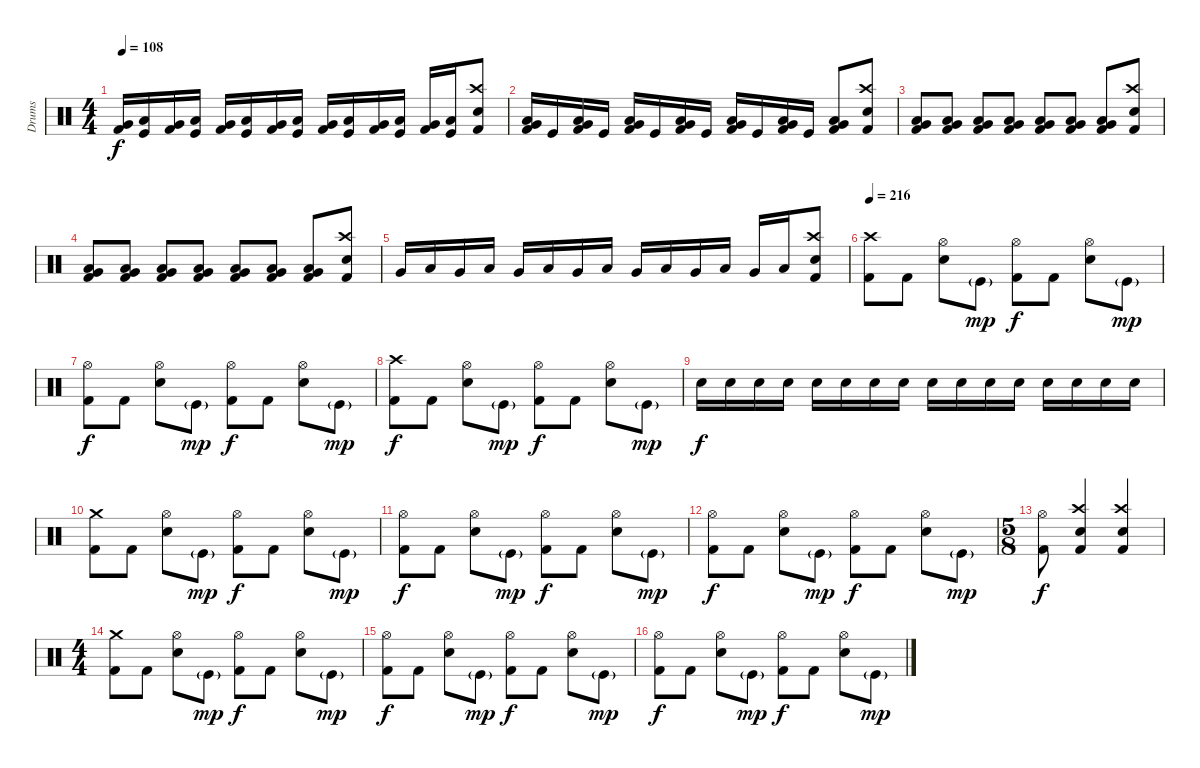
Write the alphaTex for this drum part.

\track ("Drums" "Drums") {instrument percussion}
\staff {score}
\articulation defaults
\ts (4 4)
\tempo 108
\clef neutral
\ks c
("Very Low Tom (hit)" "Kick (hit) 2").16{dy f} ("Low Floor Tom (hit)" "Kick (hit)").16 ("Very Low Tom (hit)" "Kick (hit) 2").16 ("Low Floor Tom (hit)" "Kick (hit)").16 ("Very Low Tom (hit)" "Kick (hit) 2").16 ("Low Floor Tom (hit)" "Kick (hit)").16 ("Very Low Tom (hit)" "Kick (hit) 2").16 ("Low Floor Tom (hit)" "Kick (hit)").16 ("Very Low Tom (hit)" "Kick (hit) 2").16 ("Low Floor Tom (hit)" "Kick (hit)").16 ("Very Low Tom (hit)" "Kick (hit) 2").16 ("Low Floor Tom (hit)" "Kick (hit)").16 ("Very Low Tom (hit)" "Kick (hit) 2").16 ("Low Floor Tom (hit)" "Kick (hit)").16 ("Crash high (hit)" "Snare (hit) 2" "Kick (hit) 2").8 |
("Low Floor Tom (hit)" "Very Low Tom (hit)" "Kick (hit) 2").16 "Kick (hit)".16 ("Low Floor Tom (hit)" "Very Low Tom (hit)" "Kick (hit) 2").16 "Kick (hit)".16 ("Low Floor Tom (hit)" "Very Low Tom (hit)" "Kick (hit) 2").16 "Kick (hit)".16 ("Low Floor Tom (hit)" "Very Low Tom (hit)" "Kick (hit) 2").16 "Kick (hit)".16 ("Low Floor Tom (hit)" "Very Low Tom (hit)" "Kick (hit) 2").16 "Kick (hit)".16 ("Low Floor Tom (hit)" "Very Low Tom (hit)" "Kick (hit) 2").16 "Kick (hit)".16 ("Low Floor Tom (hit)" "Very Low Tom (hit)" "Kick (hit) 2").8 ("Crash high (hit)" "Snare (hit) 2" "Kick (hit) 2").8 |
("Low Floor Tom (hit)" "Very Low Tom (hit)" "Kick (hit) 2").8 ("Low Floor Tom (hit)" "Very Low Tom (hit)" "Kick (hit) 2").8 ("Low Floor Tom (hit)" "Very Low Tom (hit)" "Kick (hit) 2").8 ("Low Floor Tom (hit)" "Very Low Tom (hit)" "Kick (hit) 2").8 ("Low Floor Tom (hit)" "Very Low Tom (hit)" "Kick (hit) 2").8 ("Low Floor Tom (hit)" "Very Low Tom (hit)" "Kick (hit) 2").8 ("Low Floor Tom (hit)" "Very Low Tom (hit)" "Kick (hit) 2").8 ("Crash high (hit)" "Snare (hit) 2" "Kick (hit) 2").8 |
("Low Floor Tom (hit)" "Very Low Tom (hit)" "Kick (hit) 2").8 ("Low Floor Tom (hit)" "Very Low Tom (hit)" "Kick (hit) 2").8 ("Low Floor Tom (hit)" "Very Low Tom (hit)" "Kick (hit) 2").8 ("Low Floor Tom (hit)" "Very Low Tom (hit)" "Kick (hit) 2").8 ("Low Floor Tom (hit)" "Very Low Tom (hit)" "Kick (hit) 2").8 ("Low Floor Tom (hit)" "Very Low Tom (hit)" "Kick (hit) 2").8 ("Low Floor Tom (hit)" "Very Low Tom (hit)" "Kick (hit) 2").8 ("Crash high (hit)" "Snare (hit) 2" "Kick (hit) 2").8 |
"Very Low Tom (hit)".16 "Low Floor Tom (hit)".16 "Very Low Tom (hit)".16 "Low Floor Tom (hit)".16 "Very Low Tom (hit)".16 "Low Floor Tom (hit)".16 "Very Low Tom (hit)".16 "Low Floor Tom (hit)".16 "Very Low Tom (hit)".16 "Low Floor Tom (hit)".16 "Very Low Tom (hit)".16 "Low Floor Tom (hit)".16 "Very Low Tom (hit)".16 "Low Floor Tom (hit)".16 ("Crash high (hit)" "Snare (hit) 2" "Kick (hit) 2").8 |
\tempo 216
("Crash high (hit)" "Kick (hit) 2").8 "Kick (hit) 2".8 ("Hi-Hat (open)" "Snare (hit) 2").8 "Kick (hit)"{g}.8{dy mp} ("Hi-Hat (open)" "Kick (hit) 2").8{dy f} "Kick (hit) 2".8 ("Hi-Hat (open)" "Snare (hit) 2").8 "Kick (hit)"{g}.8{dy mp} |
("Hi-Hat (open)" "Kick (hit) 2").8{dy f} "Kick (hit) 2".8 ("Hi-Hat (open)" "Snare (hit) 2").8 "Kick (hit)"{g}.8{dy mp} ("Hi-Hat (open)" "Kick (hit) 2").8{dy f} "Kick (hit) 2".8 ("Hi-Hat (open)" "Snare (hit) 2").8 "Kick (hit)"{g}.8{dy mp} |
("Crash high (hit)" "Kick (hit) 2").8{dy f} "Kick (hit) 2".8 ("Hi-Hat (open)" "Snare (hit) 2").8 "Kick (hit)"{g}.8{dy mp} ("Hi-Hat (open)" "Kick (hit) 2").8{dy f} "Kick (hit) 2".8 ("Hi-Hat (open)" "Snare (hit) 2").8 "Kick (hit)"{g}.8{dy mp} |
"Snare (hit) 2".16{dy f} "Snare (hit) 2".16 "Snare (hit) 2".16 "Snare (hit) 2".16 "Snare (hit) 2".16 "Snare (hit) 2".16 "Snare (hit) 2".16 "Snare (hit) 2".16 "Snare (hit) 2".16 "Snare (hit) 2".16 "Snare (hit) 2".16 "Snare (hit) 2".16 "Snare (hit) 2".16 "Snare (hit) 2".16 "Snare (hit) 2".16 "Snare (hit) 2".16 |
("Crash medium (hit)" "Kick (hit) 2").8 "Kick (hit) 2".8 ("Hi-Hat (open)" "Snare (hit) 2").8 "Kick (hit)"{g}.8{dy mp} ("Hi-Hat (open)" "Kick (hit) 2").8{dy f} "Kick (hit) 2".8 ("Hi-Hat (open)" "Snare (hit) 2").8 "Kick (hit)"{g}.8{dy mp} |
("Hi-Hat (open)" "Kick (hit) 2").8{dy f} "Kick (hit) 2".8 ("Hi-Hat (open)" "Snare (hit) 2").8 "Kick (hit)"{g}.8{dy mp} ("Hi-Hat (open)" "Kick (hit) 2").8{dy f} "Kick (hit) 2".8 ("Hi-Hat (open)" "Snare (hit) 2").8 "Kick (hit)"{g}.8{dy mp} |
("Hi-Hat (open)" "Kick (hit) 2").8{dy f} "Kick (hit) 2".8 ("Hi-Hat (open)" "Snare (hit) 2").8 "Kick (hit)"{g}.8{dy mp} ("Hi-Hat (open)" "Kick (hit) 2").8{dy f} "Kick (hit) 2".8 ("Hi-Hat (open)" "Snare (hit) 2").8 "Kick (hit)"{g}.8{dy mp} |
\ts (5 8)
("Hi-Hat (open)" "Kick (hit) 2").8{dy f} ("Crash high (hit)" "Snare (hit) 2" "Kick (hit) 2").4 ("Crash high (hit)" "Snare (hit) 2" "Kick (hit) 2").4 |
\ts (4 4)
("Crash medium (hit)" "Kick (hit) 2").8 "Kick (hit) 2".8 ("Hi-Hat (open)" "Snare (hit) 2").8 "Kick (hit)"{g}.8{dy mp} ("Hi-Hat (open)" "Kick (hit) 2").8{dy f} "Kick (hit) 2".8 ("Hi-Hat (open)" "Snare (hit) 2").8 "Kick (hit)"{g}.8{dy mp} |
("Hi-Hat (open)" "Kick (hit) 2").8{dy f} "Kick (hit) 2".8 ("Hi-Hat (open)" "Snare (hit) 2").8 "Kick (hit)"{g}.8{dy mp} ("Hi-Hat (open)" "Kick (hit) 2").8{dy f} "Kick (hit) 2".8 ("Hi-Hat (open)" "Snare (hit) 2").8 "Kick (hit)"{g}.8{dy mp} |
("Hi-Hat (open)" "Kick (hit) 2").8{dy f} "Kick (hit) 2".8 ("Hi-Hat (open)" "Snare (hit) 2").8 "Kick (hit)"{g}.8{dy mp} ("Hi-Hat (open)" "Kick (hit) 2").8{dy f} "Kick (hit) 2".8 ("Hi-Hat (open)" "Snare (hit) 2").8 "Kick (hit)"{g}.8{dy mp}
